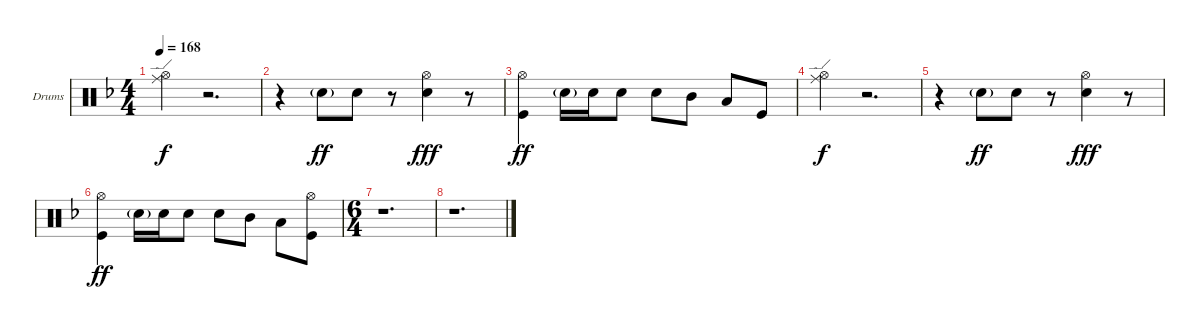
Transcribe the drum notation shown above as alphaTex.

\defaultSystemsLayout 4
\bracketExtendMode groupsimilarinstruments
\firstSystemTrackNameOrientation horizontal
\otherSystemsTrackNameOrientation horizontal
\track ("Drumkit" "Drums") {instrument percussion}
\staff {score}
\articulation defaults
\ts (4 4)
\tempo 168
\clef neutral
\scale
0.333333
\ks f
("Ride (edge)" "Hi-Hat (open)").4{dy f} r.2{d} |
\scale
0.333333 r.4 "Snare (hit) 2"{g}.8{dy ff} "Snare (hit) 2".8 r.8 ("Hi-Hat (open)" "Snare (hit) 2").4{dy fff} r.8 |
\scale
0.333333 ("Hi-Hat (open)" "Kick (hit)").4{dy ff} "Snare (hit) 2"{g}.16 "Snare (hit) 2".16 "Snare (hit) 2".8 "Snare (hit) 2".8 "Mid Tom (hit)".8 "Low Tom (hit)".8 "Kick (hit)".8 |
("Ride (edge)" "Hi-Hat (open)").4{dy f} r.2{d} |
r.4 "Snare (hit) 2"{g}.8{dy ff} "Snare (hit) 2".8 r.8 ("Hi-Hat (open)" "Snare (hit) 2").4{dy fff} r.8 |
("Hi-Hat (open)" "Kick (hit)").4{dy ff} "Snare (hit) 2"{g}.16 "Snare (hit) 2".16 "Snare (hit) 2".8 "Snare (hit) 2".8 "Mid Tom (hit)".8 "Low Tom (hit)".8 ("Kick (hit)" "Hi-Hat (open)").8 |
\ts (6 4)
r.1{d} |
r.1{d}
